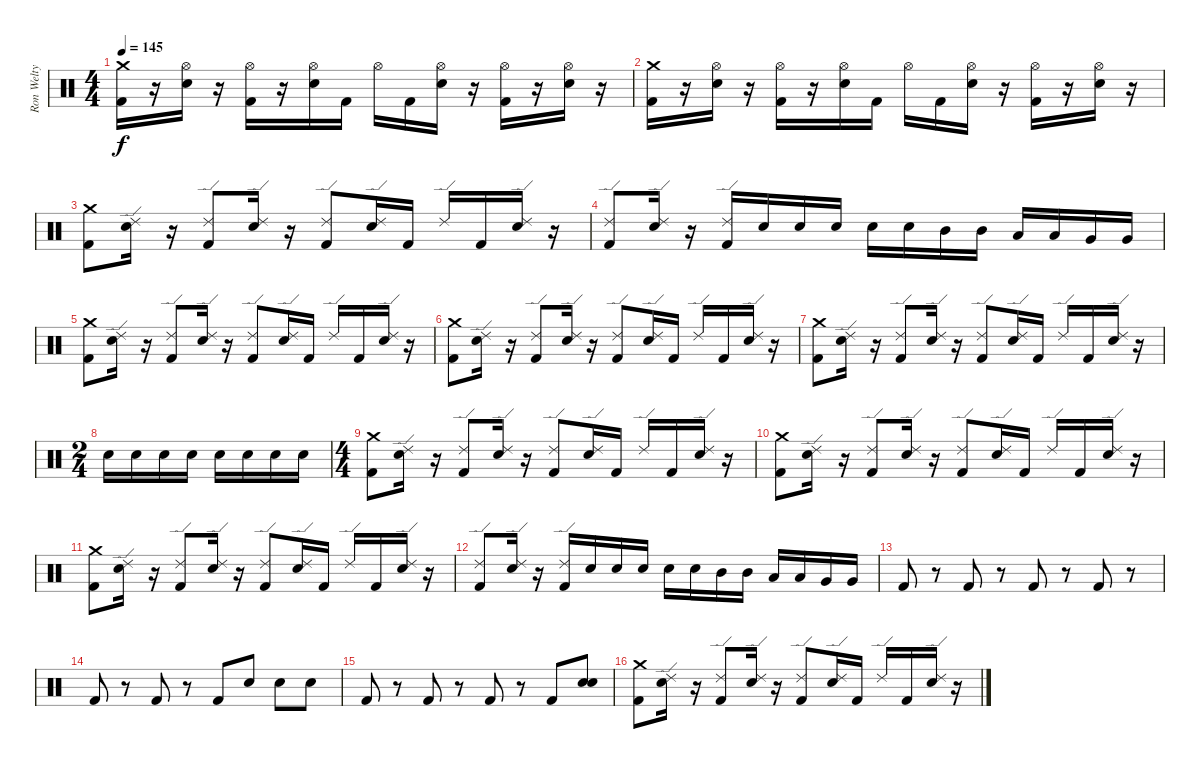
\track ("Ron Welty" "Ron Welty") {instrument percussion}
\staff {score}
\articulation defaults
\ts (4 4)
\tempo 145
\clef neutral
\ks c
("Kick (hit) 2" "Crash medium (hit)").16{dy f} r.16 ("Hi-Hat (open)" "Snare (hit) 2").16 r.16 ("Hi-Hat (open)" "Kick (hit) 2").16 r.16 ("Hi-Hat (open)" "Snare (hit) 2").16 "Kick (hit) 2".16 "Hi-Hat (open)".16 "Kick (hit) 2".16 ("Hi-Hat (open)" "Snare (hit) 2").16 r.16 ("Hi-Hat (open)" "Kick (hit) 2").16 r.16 ("Hi-Hat (open)" "Snare (hit) 2").16 r.16 |
("Kick (hit) 2" "Crash medium (hit)").16 r.16 ("Hi-Hat (open)" "Snare (hit) 2").16 r.16 ("Hi-Hat (open)" "Kick (hit) 2").16 r.16 ("Hi-Hat (open)" "Snare (hit) 2").16 "Kick (hit) 2".16 "Hi-Hat (open)".16 "Kick (hit) 2".16 ("Hi-Hat (open)" "Snare (hit) 2").16 r.16 ("Hi-Hat (open)" "Kick (hit) 2").16 r.16 ("Hi-Hat (open)" "Snare (hit) 2").16 r.16 |
("Kick (hit) 2" "Crash medium (hit)").8 ("Snare (hit) 2" "Ride (edge) 2").16 r.16 ("Kick (hit) 2" "Ride (edge) 2").8 ("Snare (hit) 2" "Ride (edge) 2").16 r.16 ("Kick (hit) 2" "Ride (edge) 2").8 ("Snare (hit) 2" "Ride (edge) 2").16 "Kick (hit) 2".16 "Ride (edge) 2".16 "Kick (hit) 2".16 ("Snare (hit) 2" "Ride (edge) 2").16 r.16 |
("Kick (hit) 2" "Ride (edge) 2").8 ("Snare (hit) 2" "Ride (edge) 2").16 r.16 ("Kick (hit) 2" "Ride (edge) 2").16 "Snare (hit) 2".16 "Snare (hit) 2".16 "Snare (hit) 2".16 "Snare (hit) 2".16 "Snare (hit) 2".16 "Mid Tom (hit)".16 "Mid Tom (hit)".16 "Low Tom (hit)".16 "Low Tom (hit)".16 "Very Low Tom (hit)".16 "Very Low Tom (hit)".16 |
("Kick (hit) 2" "Crash medium (hit)").8 ("Snare (hit) 2" "Ride (edge) 2").16 r.16 ("Kick (hit) 2" "Ride (edge) 2").8 ("Snare (hit) 2" "Ride (edge) 2").16 r.16 ("Kick (hit) 2" "Ride (edge) 2").8 ("Snare (hit) 2" "Ride (edge) 2").16 "Kick (hit) 2".16 "Ride (edge) 2".16 "Kick (hit) 2".16 ("Snare (hit) 2" "Ride (edge) 2").16 r.16 |
("Kick (hit) 2" "Crash medium (hit)").8 ("Snare (hit) 2" "Ride (edge) 2").16 r.16 ("Kick (hit) 2" "Ride (edge) 2").8 ("Snare (hit) 2" "Ride (edge) 2").16 r.16 ("Kick (hit) 2" "Ride (edge) 2").8 ("Snare (hit) 2" "Ride (edge) 2").16 "Kick (hit) 2".16 "Ride (edge) 2".16 "Kick (hit) 2".16 ("Snare (hit) 2" "Ride (edge) 2").16 r.16 |
("Kick (hit) 2" "Crash medium (hit)").8 ("Snare (hit) 2" "Ride (edge) 2").16 r.16 ("Kick (hit) 2" "Ride (edge) 2").8 ("Snare (hit) 2" "Ride (edge) 2").16 r.16 ("Kick (hit) 2" "Ride (edge) 2").8 ("Snare (hit) 2" "Ride (edge) 2").16 "Kick (hit) 2".16 "Ride (edge) 2".16 "Kick (hit) 2".16 ("Snare (hit) 2" "Ride (edge) 2").16 r.16 |
\ts (2 4)
"Snare (hit) 2".16 "Snare (hit) 2".16 "Snare (hit) 2".16 "Snare (hit) 2".16 "Snare (hit) 2".16 "Snare (hit) 2".16 "Snare (hit) 2".16 "Snare (hit) 2".16 |
\ts (4 4)
("Kick (hit) 2" "Crash medium (hit)").8 ("Snare (hit) 2" "Ride (edge) 2").16 r.16 ("Kick (hit) 2" "Ride (edge) 2").8 ("Snare (hit) 2" "Ride (edge) 2").16 r.16 ("Kick (hit) 2" "Ride (edge) 2").8 ("Snare (hit) 2" "Ride (edge) 2").16 "Kick (hit) 2".16 "Ride (edge) 2".16 "Kick (hit) 2".16 ("Snare (hit) 2" "Ride (edge) 2").16 r.16 |
("Kick (hit) 2" "Crash medium (hit)").8 ("Snare (hit) 2" "Ride (edge) 2").16 r.16 ("Kick (hit) 2" "Ride (edge) 2").8 ("Snare (hit) 2" "Ride (edge) 2").16 r.16 ("Kick (hit) 2" "Ride (edge) 2").8 ("Snare (hit) 2" "Ride (edge) 2").16 "Kick (hit) 2".16 "Ride (edge) 2".16 "Kick (hit) 2".16 ("Snare (hit) 2" "Ride (edge) 2").16 r.16 |
("Kick (hit) 2" "Crash medium (hit)").8 ("Snare (hit) 2" "Ride (edge) 2").16 r.16 ("Kick (hit) 2" "Ride (edge) 2").8 ("Snare (hit) 2" "Ride (edge) 2").16 r.16 ("Kick (hit) 2" "Ride (edge) 2").8 ("Snare (hit) 2" "Ride (edge) 2").16 "Kick (hit) 2".16 "Ride (edge) 2".16 "Kick (hit) 2".16 ("Snare (hit) 2" "Ride (edge) 2").16 r.16 |
("Kick (hit) 2" "Ride (edge) 2").8 ("Snare (hit) 2" "Ride (edge) 2").16 r.16 ("Kick (hit) 2" "Ride (edge) 2").16 "Snare (hit) 2".16 "Snare (hit) 2".16 "Snare (hit) 2".16 "Snare (hit) 2".16 "Snare (hit) 2".16 "Mid Tom (hit)".16 "Mid Tom (hit)".16 "Low Tom (hit)".16 "Low Tom (hit)".16 "Very Low Tom (hit)".16 "Very Low Tom (hit)".16 |
"Kick (hit) 2".8 r.8 "Kick (hit) 2".8 r.8 "Kick (hit) 2".8 r.8 "Kick (hit) 2".8 r.8 |
"Kick (hit) 2".8 r.8 "Kick (hit) 2".8 r.8 "Kick (hit) 2".8 "Snare (hit) 2".8 "Snare (hit) 2".8 "Snare (hit) 2".8 |
"Kick (hit) 2".8 r.8 "Kick (hit) 2".8 r.8 "Kick (hit) 2".8 r.8 "Kick (hit) 2".8 ("Snare (hit) 2" "Snare (hit) 2").8 |
("Kick (hit) 2" "Crash medium (hit)").8 ("Snare (hit) 2" "Ride (edge) 2").16 r.16 ("Kick (hit) 2" "Ride (edge) 2").8 ("Snare (hit) 2" "Ride (edge) 2").16 r.16 ("Kick (hit) 2" "Ride (edge) 2").8 ("Snare (hit) 2" "Ride (edge) 2").16 "Kick (hit) 2".16 "Ride (edge) 2".16 "Kick (hit) 2".16 ("Snare (hit) 2" "Ride (edge) 2").16 r.16
